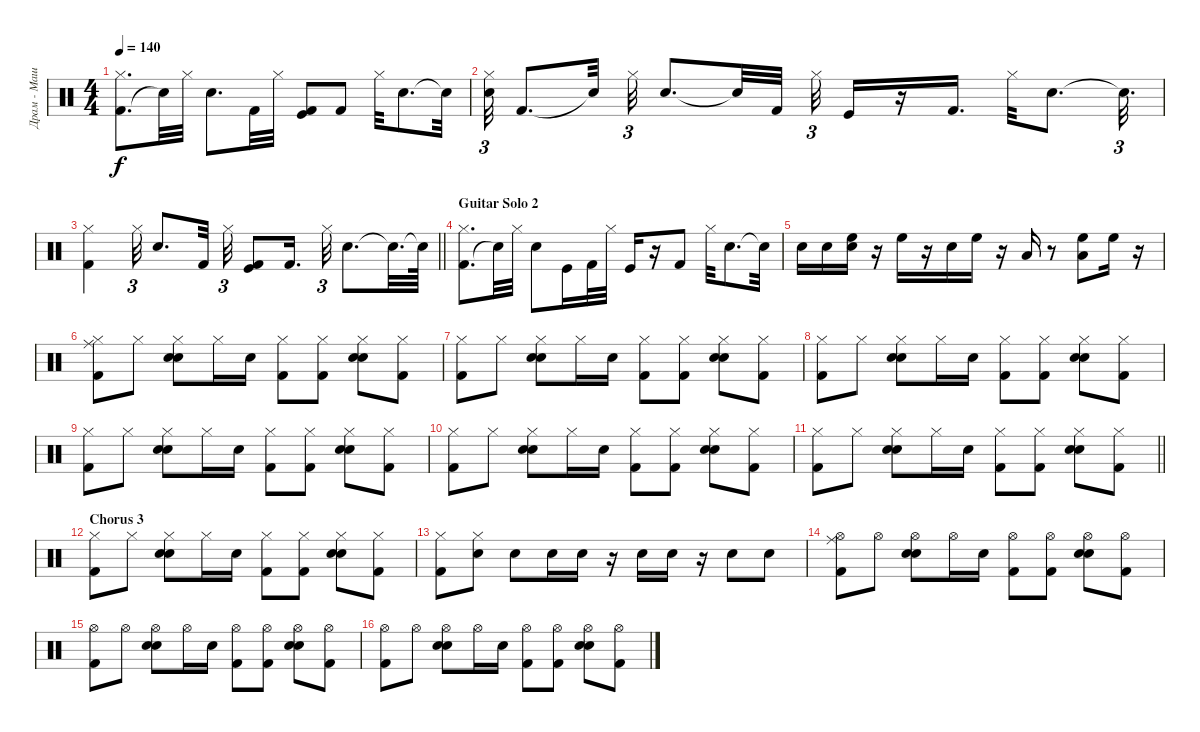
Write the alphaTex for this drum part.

\track ("Драм - Машина" "Драм - Маш") {instrument percussion}
\staff {score}
\articulation defaults
\ts (4 4)
\tempo 140
\clef neutral
\ks c
("Kick (hit) 2" "Hi-Hat (closed)").8{d dy f} "Snare (hit)"{t}.32 "Hi-Hat (closed)".32 "Electric Snare (hit)".8{d} "Kick (hit) 2".32 "Hi-Hat (closed)".32 ("Kick (hit) 2" "Kick (hit)").8 "Kick (hit) 2".8 "Hi-Hat (closed)".32 "Electric Snare (hit)".8{d} "Snare (hit)"{t}.32 |
("Electric Snare (hit)" "Hi-Hat (closed)").32{tu (3 2)} "Kick (hit) 2".8{d} "Snare (hit)"{t}.32 "Hi-Hat (closed)".32{tu (3 2)} "Electric Snare (hit)".8{d} "Snare (hit)"{t}.32 "Kick (hit) 2".32 "Hi-Hat (closed)".32{tu (3 2)} "Kick (hit)".16 r.16 "Kick (hit) 2".16{d} "Hi-Hat (closed)".32 "Electric Snare (hit)".8{d} "Snare (hit)"{t}.32{d tu (3 2)} |
\barLineRight lightlight
("Kick (hit) 2" "Hi-Hat (closed)").4 "Hi-Hat (closed)".32{tu (3 2)} "Electric Snare (hit)".8{d} "Kick (hit) 2".32 "Hi-Hat (closed)".32{tu (3 2)} ("Kick (hit) 2" "Kick (hit)").8 "Kick (hit) 2".16{d} "Hi-Hat (closed)".32{tu (3 2)} "Electric Snare (hit)".8{d} "Snare (hit)"{t}.32{d} "Snare (hit)"{t}.64 |
\section ("" "Guitar Solo 2")
("Kick (hit) 2" "Hi-Hat (closed)").8{d} "Snare (hit)"{t}.32 "Hi-Hat (closed)".32 "Electric Snare (hit)".8 "Kick (hit)".16 "Kick (hit) 2".32 "Hi-Hat (closed)".32 "Kick (hit)".16 r.16 "Kick (hit) 2".8 "Hi-Hat (closed)".32 "Electric Snare (hit)".8{d} "Snare (hit)"{t}.32 |
"Snare (hit) 2".16 "Snare (hit) 2".16 ("Snare (hit) 2" "High Floor Tom (hit)").16 r.16 "High Floor Tom (hit)".16 r.16 "Snare (hit) 2".16 "High Floor Tom (hit)".16 r.16 "Low Tom (hit)".16 r.8 ("High Floor Tom (hit)" "Low Floor Tom (hit)").8 "High Floor Tom (hit)".16 r.16 |
("Kick (hit) 2" "Ride (middle)" "Hi-Hat (closed)").8 "Hi-Hat (closed)".8 ("Hand Clap (hit)" "Snare (hit) 2" "Hi-Hat (closed)").8 "Hi-Hat (closed)".16 "Snare (hit) 2".16 ("Kick (hit) 2" "Hi-Hat (closed)").8 ("Hi-Hat (closed)" "Kick (hit) 2").8 ("Hand Clap (hit)" "Snare (hit) 2" "Hi-Hat (closed)").8 ("Hi-Hat (closed)" "Kick (hit) 2").8 |
("Kick (hit) 2" "Hi-Hat (closed)").8 "Hi-Hat (closed)".8 ("Hand Clap (hit)" "Snare (hit) 2" "Hi-Hat (closed)").8 "Hi-Hat (closed)".16 "Snare (hit) 2".16 ("Kick (hit) 2" "Hi-Hat (closed)").8 ("Hi-Hat (closed)" "Kick (hit) 2").8 ("Hand Clap (hit)" "Snare (hit) 2" "Hi-Hat (closed)").8 ("Hi-Hat (closed)" "Kick (hit) 2").8 |
("Kick (hit) 2" "Hi-Hat (closed)").8 "Hi-Hat (closed)".8 ("Hand Clap (hit)" "Snare (hit) 2" "Hi-Hat (closed)").8 "Hi-Hat (closed)".16 "Snare (hit) 2".16 ("Kick (hit) 2" "Hi-Hat (closed)").8 ("Hi-Hat (closed)" "Kick (hit) 2").8 ("Hand Clap (hit)" "Snare (hit) 2" "Hi-Hat (closed)").8 ("Hi-Hat (closed)" "Kick (hit) 2").8 |
("Kick (hit) 2" "Hi-Hat (closed)").8 "Hi-Hat (closed)".8 ("Hand Clap (hit)" "Snare (hit) 2" "Hi-Hat (closed)").8 "Hi-Hat (closed)".16 "Snare (hit) 2".16 ("Kick (hit) 2" "Hi-Hat (closed)").8 ("Hi-Hat (closed)" "Kick (hit) 2").8 ("Hand Clap (hit)" "Snare (hit) 2" "Hi-Hat (closed)").8 ("Hi-Hat (closed)" "Kick (hit) 2").8 |
("Kick (hit) 2" "Hi-Hat (closed)").8 "Hi-Hat (closed)".8 ("Hand Clap (hit)" "Snare (hit) 2" "Hi-Hat (closed)").8 "Hi-Hat (closed)".16 "Snare (hit) 2".16 ("Kick (hit) 2" "Hi-Hat (closed)").8 ("Hi-Hat (closed)" "Kick (hit) 2").8 ("Hand Clap (hit)" "Snare (hit) 2" "Hi-Hat (closed)").8 ("Hi-Hat (closed)" "Kick (hit) 2").8 |
\barLineRight lightlight
("Kick (hit) 2" "Hi-Hat (closed)").8 "Hi-Hat (closed)".8 ("Hand Clap (hit)" "Snare (hit) 2" "Hi-Hat (closed)").8 "Hi-Hat (closed)".16 "Snare (hit) 2".16 ("Kick (hit) 2" "Hi-Hat (closed)").8 ("Hi-Hat (closed)" "Kick (hit) 2").8 ("Hand Clap (hit)" "Snare (hit) 2" "Hi-Hat (closed)").8 ("Hi-Hat (closed)" "Kick (hit) 2").8 |
\section ("" "Chorus 3")
("Kick (hit) 2" "Hi-Hat (closed)").8 "Hi-Hat (closed)".8 ("Hand Clap (hit)" "Snare (hit) 2" "Hi-Hat (closed)").8 "Hi-Hat (closed)".16 "Snare (hit) 2".16 ("Kick (hit) 2" "Hi-Hat (closed)").8 ("Hi-Hat (closed)" "Kick (hit) 2").8 ("Hand Clap (hit)" "Snare (hit) 2" "Hi-Hat (closed)").8 ("Hi-Hat (closed)" "Kick (hit) 2").8 |
("Kick (hit) 2" "Hi-Hat (closed)").8 ("Hi-Hat (closed)" "Electric Snare (hit)").8 "Electric Snare (hit)".8 "Snare (hit) 2".16 "Electric Snare (hit)".16 r.16 "Electric Snare (hit)".16 "Snare (hit) 2".16 r.16 "Electric Snare (hit)".8 "Electric Snare (hit)".8 |
("Kick (hit) 2" "Ride (middle)" "Hi-Hat (open)").8 "Hi-Hat (open)".8 ("Hand Clap (hit)" "Snare (hit) 2" "Hi-Hat (open)").8 "Hi-Hat (open)".16 "Snare (hit) 2".16 ("Kick (hit) 2" "Hi-Hat (open)").8 ("Hi-Hat (open)" "Kick (hit) 2").8 ("Hand Clap (hit)" "Snare (hit) 2" "Hi-Hat (open)").8 ("Hi-Hat (open)" "Kick (hit) 2").8 |
("Kick (hit) 2" "Hi-Hat (open)").8 "Hi-Hat (open)".8 ("Hand Clap (hit)" "Snare (hit) 2" "Hi-Hat (open)").8 "Hi-Hat (open)".16 "Snare (hit) 2".16 ("Kick (hit) 2" "Hi-Hat (open)").8 ("Hi-Hat (open)" "Kick (hit) 2").8 ("Hand Clap (hit)" "Snare (hit) 2" "Hi-Hat (open)").8 ("Hi-Hat (open)" "Kick (hit) 2").8 |
("Kick (hit) 2" "Hi-Hat (open)").8 "Hi-Hat (open)".8 ("Hand Clap (hit)" "Snare (hit) 2" "Hi-Hat (open)").8 "Hi-Hat (open)".16 "Snare (hit) 2".16 ("Kick (hit) 2" "Hi-Hat (open)").8 ("Hi-Hat (open)" "Kick (hit) 2").8 ("Hand Clap (hit)" "Snare (hit) 2" "Hi-Hat (open)").8 ("Hi-Hat (open)" "Kick (hit) 2").8
